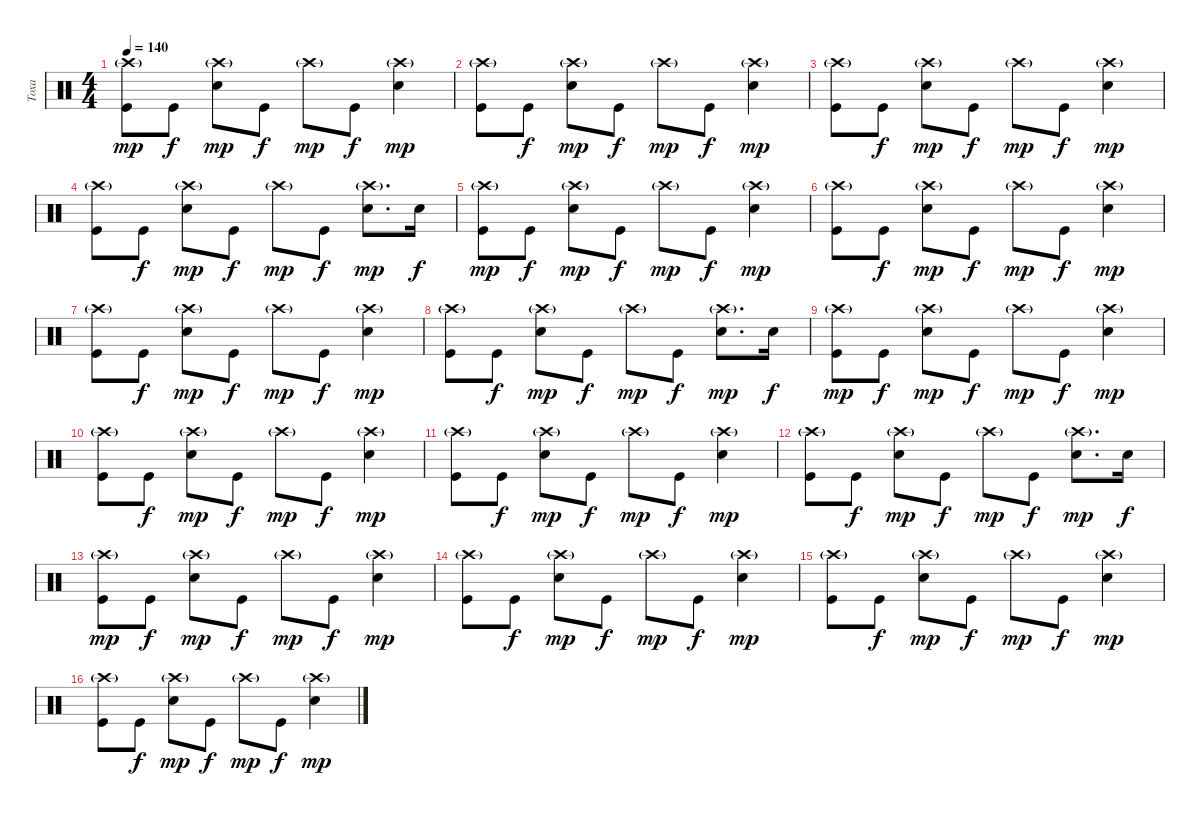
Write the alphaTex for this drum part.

\track ("Тоха" "Тоха") {instrument percussion}
\staff {score}
\articulation defaults
\ts (4 4)
\tempo 140
\clef neutral
\ks c
("Kick (hit)" "Crash high (hit)"{g}).8{dy mp} "Kick (hit)".8{dy f} ("Snare (hit) 2" "Crash high (hit)"{g}).8{dy mp} "Kick (hit)".8{dy f} "Crash high (hit)"{g}.8{dy mp} "Kick (hit)".8{dy f} ("Snare (hit) 2" "Crash high (hit)"{g}).4{dy mp} |
("Kick (hit)" "Crash high (hit)"{g}).8 "Kick (hit)".8{dy f} ("Snare (hit) 2" "Crash high (hit)"{g}).8{dy mp} "Kick (hit)".8{dy f} "Crash high (hit)"{g}.8{dy mp} "Kick (hit)".8{dy f} ("Snare (hit) 2" "Crash high (hit)"{g}).4{dy mp} |
("Kick (hit)" "Crash high (hit)"{g}).8 "Kick (hit)".8{dy f} ("Snare (hit) 2" "Crash high (hit)"{g}).8{dy mp} "Kick (hit)".8{dy f} "Crash high (hit)"{g}.8{dy mp} "Kick (hit)".8{dy f} ("Snare (hit) 2" "Crash high (hit)"{g}).4{dy mp} |
("Kick (hit)" "Crash high (hit)"{g}).8 "Kick (hit)".8{dy f} ("Snare (hit) 2" "Crash high (hit)"{g}).8{dy mp} "Kick (hit)".8{dy f} "Crash high (hit)"{g}.8{dy mp} "Kick (hit)".8{dy f} ("Snare (hit) 2" "Crash high (hit)"{g}).8{d dy mp} "Snare (hit) 2".16{dy f} |
("Kick (hit)" "Crash high (hit)"{g}).8{dy mp} "Kick (hit)".8{dy f} ("Snare (hit) 2" "Crash high (hit)"{g}).8{dy mp} "Kick (hit)".8{dy f} "Crash high (hit)"{g}.8{dy mp} "Kick (hit)".8{dy f} ("Snare (hit) 2" "Crash high (hit)"{g}).4{dy mp} |
("Kick (hit)" "Crash high (hit)"{g}).8 "Kick (hit)".8{dy f} ("Snare (hit) 2" "Crash high (hit)"{g}).8{dy mp} "Kick (hit)".8{dy f} "Crash high (hit)"{g}.8{dy mp} "Kick (hit)".8{dy f} ("Snare (hit) 2" "Crash high (hit)"{g}).4{dy mp} |
("Kick (hit)" "Crash high (hit)"{g}).8 "Kick (hit)".8{dy f} ("Snare (hit) 2" "Crash high (hit)"{g}).8{dy mp} "Kick (hit)".8{dy f} "Crash high (hit)"{g}.8{dy mp} "Kick (hit)".8{dy f} ("Snare (hit) 2" "Crash high (hit)"{g}).4{dy mp} |
("Kick (hit)" "Crash high (hit)"{g}).8 "Kick (hit)".8{dy f} ("Snare (hit) 2" "Crash high (hit)"{g}).8{dy mp} "Kick (hit)".8{dy f} "Crash high (hit)"{g}.8{dy mp} "Kick (hit)".8{dy f} ("Snare (hit) 2" "Crash high (hit)"{g}).8{d dy mp} "Snare (hit) 2".16{dy f} |
("Kick (hit)" "Crash high (hit)"{g}).8{dy mp} "Kick (hit)".8{dy f} ("Snare (hit) 2" "Crash high (hit)"{g}).8{dy mp} "Kick (hit)".8{dy f} "Crash high (hit)"{g}.8{dy mp} "Kick (hit)".8{dy f} ("Snare (hit) 2" "Crash high (hit)"{g}).4{dy mp} |
("Kick (hit)" "Crash high (hit)"{g}).8 "Kick (hit)".8{dy f} ("Snare (hit) 2" "Crash high (hit)"{g}).8{dy mp} "Kick (hit)".8{dy f} "Crash high (hit)"{g}.8{dy mp} "Kick (hit)".8{dy f} ("Snare (hit) 2" "Crash high (hit)"{g}).4{dy mp} |
("Kick (hit)" "Crash high (hit)"{g}).8 "Kick (hit)".8{dy f} ("Snare (hit) 2" "Crash high (hit)"{g}).8{dy mp} "Kick (hit)".8{dy f} "Crash high (hit)"{g}.8{dy mp} "Kick (hit)".8{dy f} ("Snare (hit) 2" "Crash high (hit)"{g}).4{dy mp} |
("Kick (hit)" "Crash high (hit)"{g}).8 "Kick (hit)".8{dy f} ("Snare (hit) 2" "Crash high (hit)"{g}).8{dy mp} "Kick (hit)".8{dy f} "Crash high (hit)"{g}.8{dy mp} "Kick (hit)".8{dy f} ("Snare (hit) 2" "Crash high (hit)"{g}).8{d dy mp} "Snare (hit) 2".16{dy f} |
("Kick (hit)" "Crash high (hit)"{g}).8{dy mp} "Kick (hit)".8{dy f} ("Snare (hit) 2" "Crash high (hit)"{g}).8{dy mp} "Kick (hit)".8{dy f} "Crash high (hit)"{g}.8{dy mp} "Kick (hit)".8{dy f} ("Snare (hit) 2" "Crash high (hit)"{g}).4{dy mp} |
("Kick (hit)" "Crash high (hit)"{g}).8 "Kick (hit)".8{dy f} ("Snare (hit) 2" "Crash high (hit)"{g}).8{dy mp} "Kick (hit)".8{dy f} "Crash high (hit)"{g}.8{dy mp} "Kick (hit)".8{dy f} ("Snare (hit) 2" "Crash high (hit)"{g}).4{dy mp} |
("Kick (hit)" "Crash high (hit)"{g}).8 "Kick (hit)".8{dy f} ("Snare (hit) 2" "Crash high (hit)"{g}).8{dy mp} "Kick (hit)".8{dy f} "Crash high (hit)"{g}.8{dy mp} "Kick (hit)".8{dy f} ("Snare (hit) 2" "Crash high (hit)"{g}).4{dy mp} |
("Kick (hit)" "Crash high (hit)"{g}).8 "Kick (hit)".8{dy f} ("Snare (hit) 2" "Crash high (hit)"{g}).8{dy mp} "Kick (hit)".8{dy f} "Crash high (hit)"{g}.8{dy mp} "Kick (hit)".8{dy f} ("Snare (hit) 2" "Crash high (hit)"{g}).4{dy mp}
